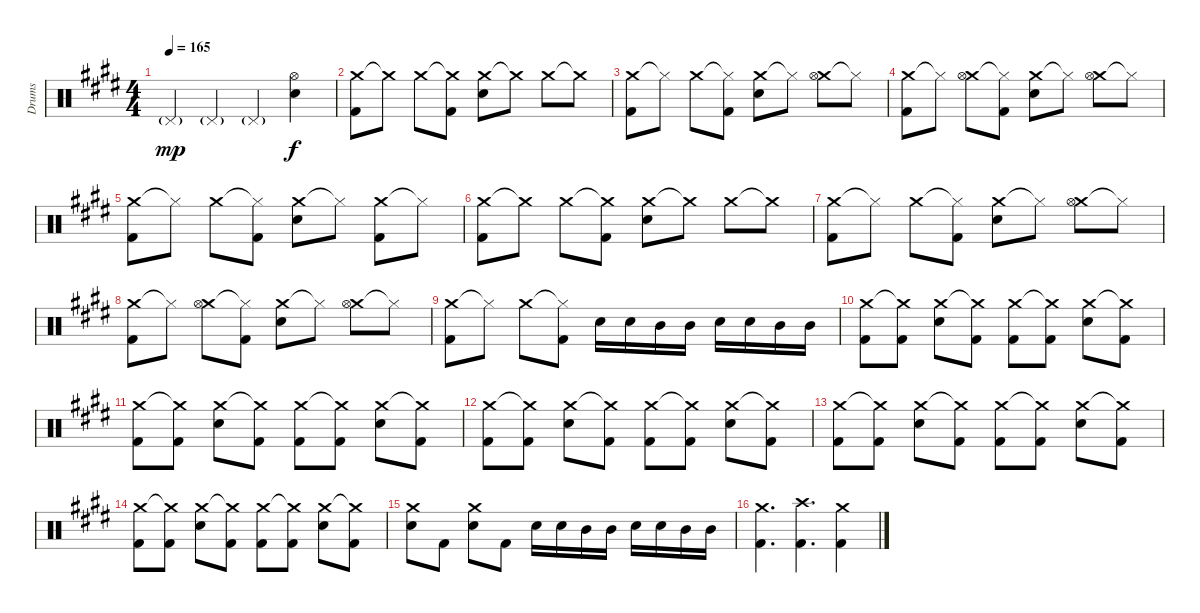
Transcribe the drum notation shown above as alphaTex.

\track ("Drums" "Drums") {instrument percussion}
\staff {score}
\articulation defaults
\ts (4 4)
\tempo 165
\clef neutral
\ks e "Pedal Hi-Hat (hit)"{g}.4{dy mp} "Pedal Hi-Hat (hit)"{g}.4 "Pedal Hi-Hat (hit)"{g}.4
("Hi-Hat (open)" "Snare (hit) 2").4{dy f} |
("Crash medium (hit)" "Kick (hit) 2").8 "Crash medium (hit)"{t}.8 "Crash medium (hit)".8 ("Crash medium (hit)"{t} "Kick (hit) 2").8 ("Crash medium (hit)" "Snare (hit) 2").8 "Crash medium (hit)"{t}.8 "Crash medium (hit)".8 "Crash medium (hit)"{t}.8 |
("Crash medium (hit)" "Kick (hit) 2").8 "Hi-Hat (closed)"{t}.8 "Crash medium (hit)".8 ("Hi-Hat (closed)"{t} "Kick (hit) 2").8 ("Crash medium (hit)" "Snare (hit) 2").8 "Hi-Hat (closed)"{t}.8 ("Crash medium (hit)" "Hi-Hat (open)").8 "Hi-Hat (closed)"{t}.8 |
("Crash medium (hit)" "Kick (hit) 2").8 "Hi-Hat (closed)"{t}.8 ("Crash medium (hit)" "Hi-Hat (open)").8 ("Hi-Hat (closed)"{t} "Kick (hit) 2").8 ("Crash medium (hit)" "Snare (hit) 2").8 "Hi-Hat (closed)"{t}.8 ("Crash medium (hit)" "Hi-Hat (open)").8 "Hi-Hat (closed)"{t}.8 |
("Crash medium (hit)" "Kick (hit) 2").8 "Hi-Hat (closed)"{t}.8 "Crash medium (hit)".8 ("Hi-Hat (closed)"{t} "Kick (hit) 2").8 ("Crash medium (hit)" "Snare (hit) 2").8 "Hi-Hat (closed)"{t}.8 ("Crash medium (hit)" "Kick (hit) 2").8 "Hi-Hat (closed)"{t}.8 |
("Crash medium (hit)" "Kick (hit) 2").8 "Crash medium (hit)"{t}.8 "Crash medium (hit)".8 ("Crash medium (hit)"{t} "Kick (hit) 2").8 ("Crash medium (hit)" "Snare (hit) 2").8 "Crash medium (hit)"{t}.8 "Crash medium (hit)".8 "Crash medium (hit)"{t}.8 |
("Crash medium (hit)" "Kick (hit) 2").8 "Hi-Hat (closed)"{t}.8 "Crash medium (hit)".8 ("Hi-Hat (closed)"{t} "Kick (hit) 2").8 ("Crash medium (hit)" "Snare (hit) 2").8 "Hi-Hat (closed)"{t}.8 ("Crash medium (hit)" "Hi-Hat (open)").8 "Hi-Hat (closed)"{t}.8 |
("Crash medium (hit)" "Kick (hit) 2").8 "Hi-Hat (closed)"{t}.8 ("Crash medium (hit)" "Hi-Hat (open)").8 ("Hi-Hat (closed)"{t} "Kick (hit) 2").8 ("Crash medium (hit)" "Snare (hit) 2").8 "Hi-Hat (closed)"{t}.8 ("Crash medium (hit)" "Hi-Hat (open)").8 "Hi-Hat (closed)"{t}.8 |
("Crash medium (hit)" "Kick (hit) 2").8 "Hi-Hat (closed)"{t}.8 "Crash medium (hit)".8 ("Hi-Hat (closed)"{t} "Kick (hit) 2").8 "Snare (hit) 2".16 "Snare (hit) 2".16 "Mid Tom (hit)".16 "Mid Tom (hit)".16 "Snare (hit) 2".16 "Snare (hit) 2".16 "Mid Tom (hit)".16 "Mid Tom (hit)".16 |
("Crash medium (hit)" "Kick (hit) 2").8 ("Crash medium (hit)"{t} "Kick (hit) 2").8 ("Crash medium (hit)" "Snare (hit) 2").8 ("Crash medium (hit)"{t} "Kick (hit) 2").8 ("Crash medium (hit)" "Kick (hit) 2").8 ("Crash medium (hit)"{t} "Kick (hit) 2").8 ("Crash medium (hit)" "Snare (hit) 2").8 ("Crash medium (hit)"{t} "Kick (hit) 2").8 |
("Crash medium (hit)" "Kick (hit) 2").8 ("Crash medium (hit)"{t} "Kick (hit) 2").8 ("Crash medium (hit)" "Snare (hit) 2").8 ("Crash medium (hit)"{t} "Kick (hit) 2").8 ("Crash medium (hit)" "Kick (hit) 2").8 ("Crash medium (hit)"{t} "Kick (hit) 2").8 ("Crash medium (hit)" "Snare (hit) 2").8 ("Crash medium (hit)"{t} "Kick (hit) 2").8 |
("Crash medium (hit)" "Kick (hit) 2").8 ("Crash medium (hit)"{t} "Kick (hit) 2").8 ("Crash medium (hit)" "Snare (hit) 2").8 ("Crash medium (hit)"{t} "Kick (hit) 2").8 ("Crash medium (hit)" "Kick (hit) 2").8 ("Crash medium (hit)"{t} "Kick (hit) 2").8 ("Crash medium (hit)" "Snare (hit) 2").8 ("Crash medium (hit)"{t} "Kick (hit) 2").8 |
("Crash medium (hit)" "Kick (hit) 2").8 ("Crash medium (hit)"{t} "Kick (hit) 2").8 ("Crash medium (hit)" "Snare (hit) 2").8 ("Crash medium (hit)"{t} "Kick (hit) 2").8 ("Crash medium (hit)" "Kick (hit) 2").8 ("Crash medium (hit)"{t} "Kick (hit) 2").8 ("Crash medium (hit)" "Snare (hit) 2").8 ("Crash medium (hit)"{t} "Kick (hit) 2").8 |
("Crash medium (hit)" "Kick (hit) 2").8 ("Crash medium (hit)"{t} "Kick (hit) 2").8 ("Crash medium (hit)" "Snare (hit) 2").8 ("Crash medium (hit)"{t} "Kick (hit) 2").8 ("Crash medium (hit)" "Kick (hit) 2").8 ("Crash medium (hit)"{t} "Kick (hit) 2").8 ("Crash medium (hit)" "Snare (hit) 2").8 ("Crash medium (hit)"{t} "Kick (hit) 2").8 |
("Crash medium (hit)" "Snare (hit) 2").8 "Kick (hit) 2".8 ("Crash medium (hit)" "Snare (hit) 2").8 "Kick (hit) 2".8 "Snare (hit) 2".16 "Snare (hit) 2".16 "Mid Tom (hit)".16 "Mid Tom (hit)".16 "Snare (hit) 2".16 "Snare (hit) 2".16 "Mid Tom (hit)".16 "Mid Tom (hit)".16 |
("Kick (hit) 2" "Crash medium (hit)").4{d} ("Kick (hit) 2" "Crash high (hit)").4{d} ("Kick (hit) 2" "Crash medium (hit)").4
